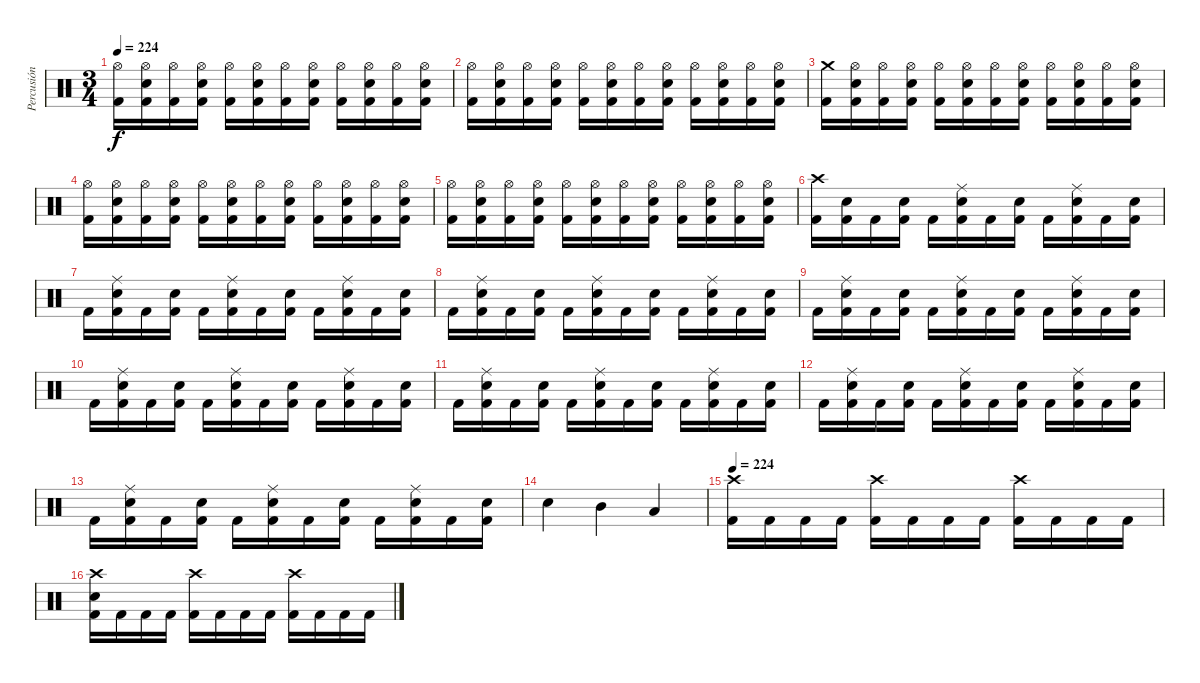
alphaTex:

\track ("Percusión" "Percusión") {instrument percussion}
\staff {score}
\articulation defaults
\ts (3 4)
\tempo 224
\clef neutral
\ks c
("Hi-Hat (open)" "Kick (hit) 2").16{dy f} ("Hi-Hat (open)" "Electric Snare (hit)" "Kick (hit) 2").16 ("Hi-Hat (open)" "Kick (hit) 2").16 ("Hi-Hat (open)" "Electric Snare (hit)" "Kick (hit) 2").16 ("Hi-Hat (open)" "Kick (hit) 2").16 ("Hi-Hat (open)" "Electric Snare (hit)" "Kick (hit) 2").16 ("Hi-Hat (open)" "Kick (hit) 2").16 ("Hi-Hat (open)" "Electric Snare (hit)" "Kick (hit) 2").16 ("Hi-Hat (open)" "Kick (hit) 2").16 ("Hi-Hat (open)" "Electric Snare (hit)" "Kick (hit) 2").16 ("Hi-Hat (open)" "Kick (hit) 2").16 ("Hi-Hat (open)" "Electric Snare (hit)" "Kick (hit) 2").16 |
("Hi-Hat (open)" "Kick (hit) 2").16 ("Hi-Hat (open)" "Electric Snare (hit)" "Kick (hit) 2").16 ("Hi-Hat (open)" "Kick (hit) 2").16 ("Hi-Hat (open)" "Electric Snare (hit)" "Kick (hit) 2").16 ("Hi-Hat (open)" "Kick (hit) 2").16 ("Hi-Hat (open)" "Electric Snare (hit)" "Kick (hit) 2").16 ("Hi-Hat (open)" "Kick (hit) 2").16 ("Hi-Hat (open)" "Electric Snare (hit)" "Kick (hit) 2").16 ("Hi-Hat (open)" "Kick (hit) 2").16 ("Hi-Hat (open)" "Electric Snare (hit)" "Kick (hit) 2").16 ("Hi-Hat (open)" "Kick (hit) 2").16 ("Hi-Hat (open)" "Electric Snare (hit)" "Kick (hit) 2").16 |
("Crash medium (hit)" "Kick (hit) 2").16 ("Hi-Hat (open)" "Electric Snare (hit)" "Kick (hit) 2").16 ("Hi-Hat (open)" "Kick (hit) 2").16 ("Hi-Hat (open)" "Electric Snare (hit)" "Kick (hit) 2").16 ("Hi-Hat (open)" "Kick (hit) 2").16 ("Hi-Hat (open)" "Electric Snare (hit)" "Kick (hit) 2").16 ("Hi-Hat (open)" "Kick (hit) 2").16 ("Hi-Hat (open)" "Electric Snare (hit)" "Kick (hit) 2").16 ("Hi-Hat (open)" "Kick (hit) 2").16 ("Hi-Hat (open)" "Electric Snare (hit)" "Kick (hit) 2").16 ("Hi-Hat (open)" "Kick (hit) 2").16 ("Hi-Hat (open)" "Electric Snare (hit)" "Kick (hit) 2").16 |
("Hi-Hat (open)" "Kick (hit) 2").16 ("Hi-Hat (open)" "Electric Snare (hit)" "Kick (hit) 2").16 ("Hi-Hat (open)" "Kick (hit) 2").16 ("Hi-Hat (open)" "Electric Snare (hit)" "Kick (hit) 2").16 ("Hi-Hat (open)" "Kick (hit) 2").16 ("Hi-Hat (open)" "Electric Snare (hit)" "Kick (hit) 2").16 ("Hi-Hat (open)" "Kick (hit) 2").16 ("Hi-Hat (open)" "Electric Snare (hit)" "Kick (hit) 2").16 ("Hi-Hat (open)" "Kick (hit) 2").16 ("Hi-Hat (open)" "Electric Snare (hit)" "Kick (hit) 2").16 ("Hi-Hat (open)" "Kick (hit) 2").16 ("Hi-Hat (open)" "Electric Snare (hit)" "Kick (hit) 2").16 |
("Hi-Hat (open)" "Kick (hit) 2").16 ("Hi-Hat (open)" "Electric Snare (hit)" "Kick (hit) 2").16 ("Hi-Hat (open)" "Kick (hit) 2").16 ("Hi-Hat (open)" "Electric Snare (hit)" "Kick (hit) 2").16 ("Hi-Hat (open)" "Kick (hit) 2").16 ("Hi-Hat (open)" "Electric Snare (hit)" "Kick (hit) 2").16 ("Hi-Hat (open)" "Kick (hit) 2").16 ("Hi-Hat (open)" "Electric Snare (hit)" "Kick (hit) 2").16 ("Hi-Hat (open)" "Kick (hit) 2").16 ("Hi-Hat (open)" "Electric Snare (hit)" "Kick (hit) 2").16 ("Hi-Hat (open)" "Kick (hit) 2").16 ("Hi-Hat (open)" "Electric Snare (hit)" "Kick (hit) 2").16 |
("Crash high (hit)" "Kick (hit) 2").16 ("Electric Snare (hit)" "Kick (hit) 2").16 "Kick (hit) 2".16 ("Electric Snare (hit)" "Kick (hit) 2").16 "Kick (hit) 2".16 ("Ride (middle)" "Electric Snare (hit)" "Kick (hit) 2").16 "Kick (hit) 2".16 ("Electric Snare (hit)" "Kick (hit) 2").16 "Kick (hit) 2".16 ("Ride (middle)" "Electric Snare (hit)" "Kick (hit) 2").16 "Kick (hit) 2".16 ("Electric Snare (hit)" "Kick (hit) 2").16 |
"Kick (hit) 2".16 ("Ride (middle)" "Electric Snare (hit)" "Kick (hit) 2").16 "Kick (hit) 2".16 ("Electric Snare (hit)" "Kick (hit) 2").16 "Kick (hit) 2".16 ("Ride (middle)" "Electric Snare (hit)" "Kick (hit) 2").16 "Kick (hit) 2".16 ("Electric Snare (hit)" "Kick (hit) 2").16 "Kick (hit) 2".16 ("Ride (middle)" "Electric Snare (hit)" "Kick (hit) 2").16 "Kick (hit) 2".16 ("Electric Snare (hit)" "Kick (hit) 2").16 |
"Kick (hit) 2".16 ("Ride (middle)" "Electric Snare (hit)" "Kick (hit) 2").16 "Kick (hit) 2".16 ("Electric Snare (hit)" "Kick (hit) 2").16 "Kick (hit) 2".16 ("Ride (middle)" "Electric Snare (hit)" "Kick (hit) 2").16 "Kick (hit) 2".16 ("Electric Snare (hit)" "Kick (hit) 2").16 "Kick (hit) 2".16 ("Ride (middle)" "Electric Snare (hit)" "Kick (hit) 2").16 "Kick (hit) 2".16 ("Electric Snare (hit)" "Kick (hit) 2").16 |
"Kick (hit) 2".16 ("Ride (middle)" "Electric Snare (hit)" "Kick (hit) 2").16 "Kick (hit) 2".16 ("Electric Snare (hit)" "Kick (hit) 2").16 "Kick (hit) 2".16 ("Ride (middle)" "Electric Snare (hit)" "Kick (hit) 2").16 "Kick (hit) 2".16 ("Electric Snare (hit)" "Kick (hit) 2").16 "Kick (hit) 2".16 ("Ride (middle)" "Electric Snare (hit)" "Kick (hit) 2").16 "Kick (hit) 2".16 ("Electric Snare (hit)" "Kick (hit) 2").16 |
"Kick (hit) 2".16 ("Ride (middle)" "Electric Snare (hit)" "Kick (hit) 2").16 "Kick (hit) 2".16 ("Electric Snare (hit)" "Kick (hit) 2").16 "Kick (hit) 2".16 ("Ride (middle)" "Electric Snare (hit)" "Kick (hit) 2").16 "Kick (hit) 2".16 ("Electric Snare (hit)" "Kick (hit) 2").16 "Kick (hit) 2".16 ("Ride (middle)" "Electric Snare (hit)" "Kick (hit) 2").16 "Kick (hit) 2".16 ("Electric Snare (hit)" "Kick (hit) 2").16 |
"Kick (hit) 2".16 ("Ride (middle)" "Electric Snare (hit)" "Kick (hit) 2").16 "Kick (hit) 2".16 ("Electric Snare (hit)" "Kick (hit) 2").16 "Kick (hit) 2".16 ("Ride (middle)" "Electric Snare (hit)" "Kick (hit) 2").16 "Kick (hit) 2".16 ("Electric Snare (hit)" "Kick (hit) 2").16 "Kick (hit) 2".16 ("Ride (middle)" "Electric Snare (hit)" "Kick (hit) 2").16 "Kick (hit) 2".16 ("Electric Snare (hit)" "Kick (hit) 2").16 |
"Kick (hit) 2".16 ("Ride (middle)" "Electric Snare (hit)" "Kick (hit) 2").16 "Kick (hit) 2".16 ("Electric Snare (hit)" "Kick (hit) 2").16 "Kick (hit) 2".16 ("Ride (middle)" "Electric Snare (hit)" "Kick (hit) 2").16 "Kick (hit) 2".16 ("Electric Snare (hit)" "Kick (hit) 2").16 "Kick (hit) 2".16 ("Ride (middle)" "Electric Snare (hit)" "Kick (hit) 2").16 "Kick (hit) 2".16 ("Electric Snare (hit)" "Kick (hit) 2").16 |
"Kick (hit) 2".16 ("Ride (middle)" "Electric Snare (hit)" "Kick (hit) 2").16 "Kick (hit) 2".16 ("Electric Snare (hit)" "Kick (hit) 2").16 "Kick (hit) 2".16 ("Ride (middle)" "Electric Snare (hit)" "Kick (hit) 2").16 "Kick (hit) 2".16 ("Electric Snare (hit)" "Kick (hit) 2").16 "Kick (hit) 2".16 ("Ride (middle)" "Electric Snare (hit)" "Kick (hit) 2").16 "Kick (hit) 2".16 ("Electric Snare (hit)" "Kick (hit) 2").16 |
"Electric Snare (hit)".4 "Mid Tom (hit)".4 "Low Tom (hit)".4 |
\tempo 224
("Crash high (hit)" "Kick (hit) 2").16 "Kick (hit) 2".16 "Kick (hit) 2".16 "Kick (hit) 2".16 ("Crash high (hit)" "Kick (hit) 2").16 "Kick (hit) 2".16 "Kick (hit) 2".16 "Kick (hit) 2".16 ("Crash high (hit)" "Kick (hit) 2").16 "Kick (hit) 2".16 "Kick (hit) 2".16 "Kick (hit) 2".16 |
("Crash high (hit)" "Electric Snare (hit)" "Kick (hit) 2").16 "Kick (hit) 2".16 "Kick (hit) 2".16 "Kick (hit) 2".16 ("Crash high (hit)" "Kick (hit) 2").16 "Kick (hit) 2".16 "Kick (hit) 2".16 "Kick (hit) 2".16 ("Crash high (hit)" "Kick (hit) 2").16 "Kick (hit) 2".16 "Kick (hit) 2".16 "Kick (hit) 2".16
